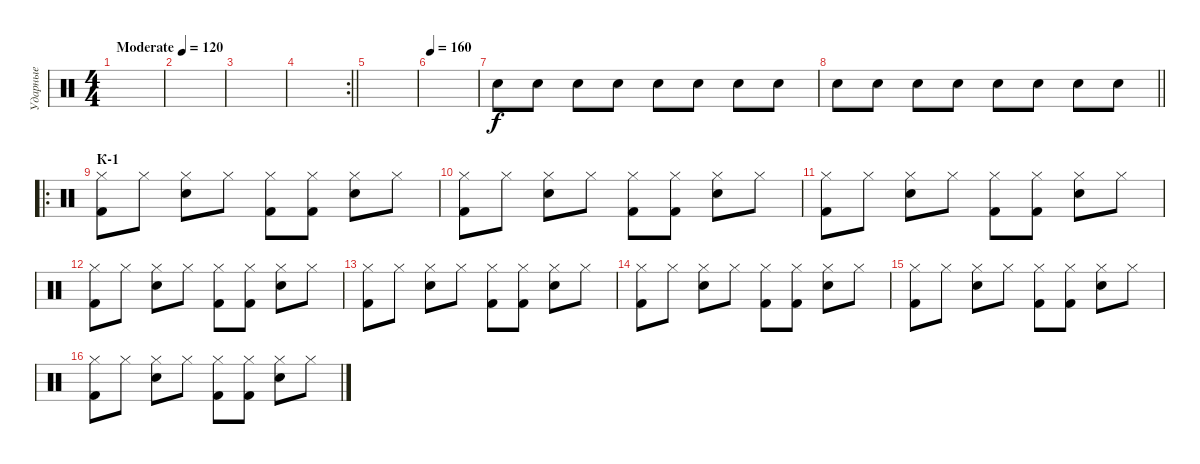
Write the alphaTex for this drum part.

\track ("Ударные" "Ударные") {instrument percussion}
\staff {score}
\articulation defaults
\ts (4 4)
\tempo (120 "Moderate")
\clef neutral
\ks c
|
|
|
\rc 2
\barLineRight lightlight
|
|
\tempo 160
|
"Snare (hit) 2".8 "Snare (hit) 2".8 "Snare (hit) 2".8 "Snare (hit) 2".8 "Snare (hit) 2".8 "Snare (hit) 2".8 "Snare (hit) 2".8 "Snare (hit) 2".8 |
\barLineRight lightlight "Snare (hit) 2".8 "Snare (hit) 2".8 "Snare (hit) 2".8 "Snare (hit) 2".8 "Snare (hit) 2".8 "Snare (hit) 2".8 "Snare (hit) 2".8 "Snare (hit) 2".8
|
\ro
\section ("" "К-1")
("Kick (hit) 2" "Hi-Hat (closed)").8{dy f} "Hi-Hat (closed)".8 ("Hi-Hat (closed)" "Electric Snare (hit)").8 "Hi-Hat (closed)".8 ("Kick (hit) 2" "Hi-Hat (closed)").8 ("Kick (hit) 2" "Hi-Hat (closed)").8 ("Hi-Hat (closed)" "Electric Snare (hit)").8 "Hi-Hat (closed)".8 |
("Kick (hit) 2" "Hi-Hat (closed)").8 "Hi-Hat (closed)".8 ("Hi-Hat (closed)" "Electric Snare (hit)").8 "Hi-Hat (closed)".8 ("Kick (hit) 2" "Hi-Hat (closed)").8 ("Kick (hit) 2" "Hi-Hat (closed)").8 ("Hi-Hat (closed)" "Electric Snare (hit)").8 "Hi-Hat (closed)".8 |
("Kick (hit) 2" "Hi-Hat (closed)").8 "Hi-Hat (closed)".8 ("Hi-Hat (closed)" "Electric Snare (hit)").8 "Hi-Hat (closed)".8 ("Kick (hit) 2" "Hi-Hat (closed)").8 ("Kick (hit) 2" "Hi-Hat (closed)").8 ("Hi-Hat (closed)" "Electric Snare (hit)").8 "Hi-Hat (closed)".8 |
("Kick (hit) 2" "Hi-Hat (closed)").8 "Hi-Hat (closed)".8 ("Hi-Hat (closed)" "Electric Snare (hit)").8 "Hi-Hat (closed)".8 ("Kick (hit) 2" "Hi-Hat (closed)").8 ("Kick (hit) 2" "Hi-Hat (closed)").8 ("Hi-Hat (closed)" "Electric Snare (hit)").8 "Hi-Hat (closed)".8 |
("Kick (hit) 2" "Hi-Hat (closed)").8 "Hi-Hat (closed)".8 ("Hi-Hat (closed)" "Electric Snare (hit)").8 "Hi-Hat (closed)".8 ("Kick (hit) 2" "Hi-Hat (closed)").8 ("Kick (hit) 2" "Hi-Hat (closed)").8 ("Hi-Hat (closed)" "Electric Snare (hit)").8 "Hi-Hat (closed)".8 |
("Kick (hit) 2" "Hi-Hat (closed)").8 "Hi-Hat (closed)".8 ("Hi-Hat (closed)" "Electric Snare (hit)").8 "Hi-Hat (closed)".8 ("Kick (hit) 2" "Hi-Hat (closed)").8 ("Kick (hit) 2" "Hi-Hat (closed)").8 ("Hi-Hat (closed)" "Electric Snare (hit)").8 "Hi-Hat (closed)".8 |
("Kick (hit) 2" "Hi-Hat (closed)").8 "Hi-Hat (closed)".8 ("Hi-Hat (closed)" "Electric Snare (hit)").8 "Hi-Hat (closed)".8 ("Kick (hit) 2" "Hi-Hat (closed)").8 ("Kick (hit) 2" "Hi-Hat (closed)").8 ("Hi-Hat (closed)" "Electric Snare (hit)").8 "Hi-Hat (closed)".8 |
("Kick (hit) 2" "Hi-Hat (closed)").8 "Hi-Hat (closed)".8 ("Hi-Hat (closed)" "Electric Snare (hit)").8 "Hi-Hat (closed)".8 ("Kick (hit) 2" "Hi-Hat (closed)").8 ("Kick (hit) 2" "Hi-Hat (closed)").8 ("Hi-Hat (closed)" "Electric Snare (hit)").8 "Hi-Hat (closed)".8
